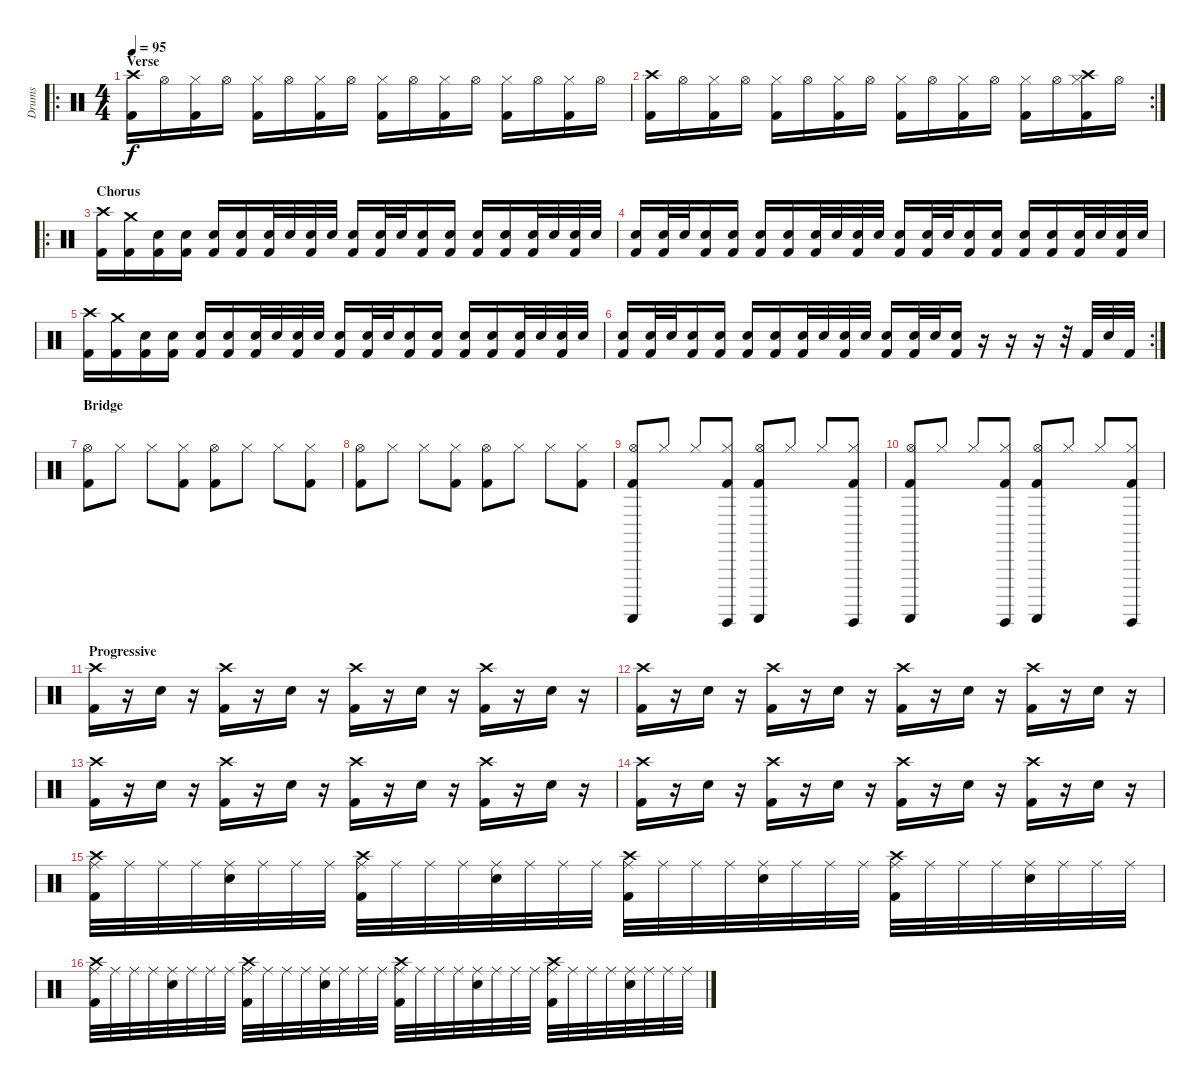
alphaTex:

\track ("Drums" "Drums") {instrument percussion}
\staff {score}
\articulation defaults
\ro
\ts (4 4)
\section ("" "Verse")
\tempo 95
\clef neutral
\ks c
("Crash high (hit)" "Kick (hit) 2").16{dy f} "Hi-Hat (open)".16 ("Hi-Hat (closed)" "Kick (hit) 2").16 "Hi-Hat (open)".16 ("Hi-Hat (closed)" "Kick (hit) 2").16 "Hi-Hat (open)".16 ("Hi-Hat (closed)" "Kick (hit) 2").16 "Hi-Hat (open)".16 ("Hi-Hat (closed)" "Kick (hit) 2").16 "Hi-Hat (open)".16 ("Hi-Hat (closed)" "Kick (hit) 2").16 "Hi-Hat (open)".16 ("Hi-Hat (closed)" "Kick (hit) 2").16 "Hi-Hat (open)".16 ("Hi-Hat (closed)" "Kick (hit) 2").16 "Hi-Hat (open)".16 |
\rc 2
("Crash high (hit)" "Kick (hit) 2").16 "Hi-Hat (open)".16 ("Hi-Hat (closed)" "Kick (hit) 2").16 "Hi-Hat (open)".16 ("Hi-Hat (closed)" "Kick (hit) 2").16 "Hi-Hat (open)".16 ("Hi-Hat (closed)" "Kick (hit) 2").16 "Hi-Hat (open)".16 ("Hi-Hat (closed)" "Kick (hit) 2").16 "Hi-Hat (open)".16 ("Hi-Hat (closed)" "Kick (hit) 2").16 "Hi-Hat (open)".16 ("Hi-Hat (closed)" "Kick (hit) 2").16 "Hi-Hat (open)".16 ("Crash high (hit)" "Hi-Hat (closed)" "Kick (hit) 2").16 "Hi-Hat (open)".16 |
\ro
\section ("" "Chorus")
("Crash high (hit)" "Kick (hit) 2").16 ("Crash medium (hit)" "Kick (hit) 2").16 ("Snare (hit) 2" "Kick (hit) 2").16 ("Snare (hit) 2" "Kick (hit) 2").16 ("Snare (hit) 2" "Kick (hit) 2").16 ("Snare (hit) 2" "Kick (hit) 2").16 ("Snare (hit) 2" "Kick (hit) 2").32 "Snare (hit) 2".32 ("Snare (hit) 2" "Kick (hit) 2").32 "Snare (hit) 2".32 ("Snare (hit) 2" "Kick (hit) 2").16 ("Snare (hit) 2" "Kick (hit) 2").32 "Snare (hit) 2".32 ("Snare (hit) 2" "Kick (hit) 2").16 ("Snare (hit) 2" "Kick (hit) 2").16 ("Snare (hit) 2" "Kick (hit) 2").16 ("Snare (hit) 2" "Kick (hit) 2").16 ("Snare (hit) 2" "Kick (hit) 2").32 "Snare (hit) 2".32 ("Snare (hit) 2" "Kick (hit) 2").32 "Snare (hit) 2".32 |
("Snare (hit) 2" "Kick (hit) 2").16 ("Snare (hit) 2" "Kick (hit) 2").32 "Snare (hit) 2".32 ("Snare (hit) 2" "Kick (hit) 2").16 ("Snare (hit) 2" "Kick (hit) 2").16 ("Snare (hit) 2" "Kick (hit) 2").16 ("Snare (hit) 2" "Kick (hit) 2").16 ("Snare (hit) 2" "Kick (hit) 2").32 "Snare (hit) 2".32 ("Snare (hit) 2" "Kick (hit) 2").32 "Snare (hit) 2".32 ("Snare (hit) 2" "Kick (hit) 2").16 ("Snare (hit) 2" "Kick (hit) 2").32 "Snare (hit) 2".32 ("Snare (hit) 2" "Kick (hit) 2").16 ("Snare (hit) 2" "Kick (hit) 2").16 ("Snare (hit) 2" "Kick (hit) 2").16 ("Snare (hit) 2" "Kick (hit) 2").16 ("Snare (hit) 2" "Kick (hit) 2").32 "Snare (hit) 2".32 ("Snare (hit) 2" "Kick (hit) 2").32 "Snare (hit) 2".32 |
("Crash high (hit)" "Kick (hit) 2").16 ("Crash medium (hit)" "Kick (hit) 2").16 ("Snare (hit) 2" "Kick (hit) 2").16 ("Snare (hit) 2" "Kick (hit) 2").16 ("Snare (hit) 2" "Kick (hit) 2").16 ("Snare (hit) 2" "Kick (hit) 2").16 ("Snare (hit) 2" "Kick (hit) 2").32 "Snare (hit) 2".32 ("Snare (hit) 2" "Kick (hit) 2").32 "Snare (hit) 2".32 ("Snare (hit) 2" "Kick (hit) 2").16 ("Snare (hit) 2" "Kick (hit) 2").32 "Snare (hit) 2".32 ("Snare (hit) 2" "Kick (hit) 2").16 ("Snare (hit) 2" "Kick (hit) 2").16 ("Snare (hit) 2" "Kick (hit) 2").16 ("Snare (hit) 2" "Kick (hit) 2").16 ("Snare (hit) 2" "Kick (hit) 2").32 "Snare (hit) 2".32 ("Snare (hit) 2" "Kick (hit) 2").32 "Snare (hit) 2".32 |
\rc 2
("Snare (hit) 2" "Kick (hit) 2").16 ("Snare (hit) 2" "Kick (hit) 2").32 "Snare (hit) 2".32 ("Snare (hit) 2" "Kick (hit) 2").16 ("Snare (hit) 2" "Kick (hit) 2").16 ("Snare (hit) 2" "Kick (hit) 2").16 ("Snare (hit) 2" "Kick (hit) 2").16 ("Snare (hit) 2" "Kick (hit) 2").32 "Snare (hit) 2".32 ("Snare (hit) 2" "Kick (hit) 2").32 "Snare (hit) 2".32 ("Snare (hit) 2" "Kick (hit) 2").16 ("Snare (hit) 2" "Kick (hit) 2").32 "Snare (hit) 2".32 ("Snare (hit) 2" "Kick (hit) 2").16 r.16 r.16 r.16 r.32 "Kick (hit) 2".32 "Snare (hit) 2".32 "Kick (hit) 2".32 |
\section ("" "Bridge")
("Hi-Hat (open)" "Kick (hit) 2").8 "Hi-Hat (closed)".8 "Hi-Hat (closed)".8 ("Hi-Hat (closed)" "Kick (hit) 2").8 ("Hi-Hat (open)" "Kick (hit) 2").8 "Hi-Hat (closed)".8 "Hi-Hat (closed)".8 ("Hi-Hat (closed)" "Kick (hit) 2").8 |
("Hi-Hat (open)" "Kick (hit) 2").8 "Hi-Hat (closed)".8 "Hi-Hat (closed)".8 ("Hi-Hat (closed)" "Kick (hit) 2").8 ("Hi-Hat (open)" "Kick (hit) 2").8 "Hi-Hat (closed)".8 "Hi-Hat (closed)".8 ("Hi-Hat (closed)" "Kick (hit) 2").8 |
("Hi-Hat (open)" "Guiro (scrap-return)" "Kick (hit) 2").8 "Hi-Hat (closed)".8 "Hi-Hat (closed)".8 ("Guiro (hit)" "Hi-Hat (closed)" "Kick (hit) 2").8 ("Hi-Hat (open)" "Guiro (scrap-return)" "Kick (hit) 2").8 "Hi-Hat (closed)".8 "Hi-Hat (closed)".8 ("Guiro (hit)" "Hi-Hat (closed)" "Kick (hit) 2").8 |
("Hi-Hat (open)" "Guiro (scrap-return)" "Kick (hit) 2").8 "Hi-Hat (closed)".8 "Hi-Hat (closed)".8 ("Guiro (hit)" "Hi-Hat (closed)" "Kick (hit) 2").8 ("Hi-Hat (open)" "Guiro (scrap-return)" "Kick (hit) 2").8 "Hi-Hat (closed)".8 "Hi-Hat (closed)".8 ("Guiro (hit)" "Hi-Hat (closed)" "Kick (hit) 2").8 |
\section ("" "Progressive")
("Crash high (hit)" "Kick (hit) 2").16 r.16 "Snare (hit) 2".16 r.16 ("Crash high (hit)" "Kick (hit) 2").16 r.16 "Snare (hit) 2".16 r.16 ("Crash high (hit)" "Kick (hit) 2").16 r.16 "Snare (hit) 2".16 r.16 ("Crash high (hit)" "Kick (hit) 2").16 r.16 "Snare (hit) 2".16 r.16 |
("Crash high (hit)" "Kick (hit) 2").16 r.16 "Snare (hit) 2".16 r.16 ("Crash high (hit)" "Kick (hit) 2").16 r.16 "Snare (hit) 2".16 r.16 ("Crash high (hit)" "Kick (hit) 2").16 r.16 "Snare (hit) 2".16 r.16 ("Crash high (hit)" "Kick (hit) 2").16 r.16 "Snare (hit) 2".16 r.16 |
("Crash high (hit)" "Kick (hit) 2").16 r.16 "Snare (hit) 2".16 r.16 ("Crash high (hit)" "Kick (hit) 2").16 r.16 "Snare (hit) 2".16 r.16 ("Crash high (hit)" "Kick (hit) 2").16 r.16 "Snare (hit) 2".16 r.16 ("Crash high (hit)" "Kick (hit) 2").16 r.16 "Snare (hit) 2".16 r.16 |
("Crash high (hit)" "Kick (hit) 2").16 r.16 "Snare (hit) 2".16 r.16 ("Crash high (hit)" "Kick (hit) 2").16 r.16 "Snare (hit) 2".16 r.16 ("Crash high (hit)" "Kick (hit) 2").16 r.16 "Snare (hit) 2".16 r.16 ("Crash high (hit)" "Kick (hit) 2").16 r.16 "Snare (hit) 2".16 r.16 |
("Crash high (hit)" "Ride (middle)" "Kick (hit) 2").32 "Ride (middle)".32 "Ride (middle)".32 "Ride (middle)".32 ("Ride (middle)" "Snare (hit) 2").32 "Ride (middle)".32 "Ride (middle)".32 "Ride (middle)".32 ("Crash high (hit)" "Ride (middle)" "Kick (hit) 2").32 "Ride (middle)".32 "Ride (middle)".32 "Ride (middle)".32 ("Ride (middle)" "Snare (hit) 2").32 "Ride (middle)".32 "Ride (middle)".32 "Ride (middle)".32 ("Crash high (hit)" "Ride (middle)" "Kick (hit) 2").32 "Ride (middle)".32 "Ride (middle)".32 "Ride (middle)".32 ("Ride (middle)" "Snare (hit) 2").32 "Ride (middle)".32 "Ride (middle)".32 "Ride (middle)".32 ("Crash high (hit)" "Ride (middle)" "Kick (hit) 2").32 "Ride (middle)".32 "Ride (middle)".32 "Ride (middle)".32 ("Ride (middle)" "Snare (hit) 2").32 "Ride (middle)".32 "Ride (middle)".32 "Ride (middle)".32 |
("Crash high (hit)" "Ride (middle)" "Kick (hit) 2").32 "Ride (middle)".32 "Ride (middle)".32 "Ride (middle)".32 ("Ride (middle)" "Snare (hit) 2").32 "Ride (middle)".32 "Ride (middle)".32 "Ride (middle)".32 ("Crash high (hit)" "Ride (middle)" "Kick (hit) 2").32 "Ride (middle)".32 "Ride (middle)".32 "Ride (middle)".32 ("Ride (middle)" "Snare (hit) 2").32 "Ride (middle)".32 "Ride (middle)".32 "Ride (middle)".32 ("Crash high (hit)" "Ride (middle)" "Kick (hit) 2").32 "Ride (middle)".32 "Ride (middle)".32 "Ride (middle)".32 ("Ride (middle)" "Snare (hit) 2").32 "Ride (middle)".32 "Ride (middle)".32 "Ride (middle)".32 ("Crash high (hit)" "Ride (middle)" "Kick (hit) 2").32 "Ride (middle)".32 "Ride (middle)".32 "Ride (middle)".32 ("Ride (middle)" "Snare (hit) 2").32 "Ride (middle)".32 "Ride (middle)".32 "Ride (middle)".32
